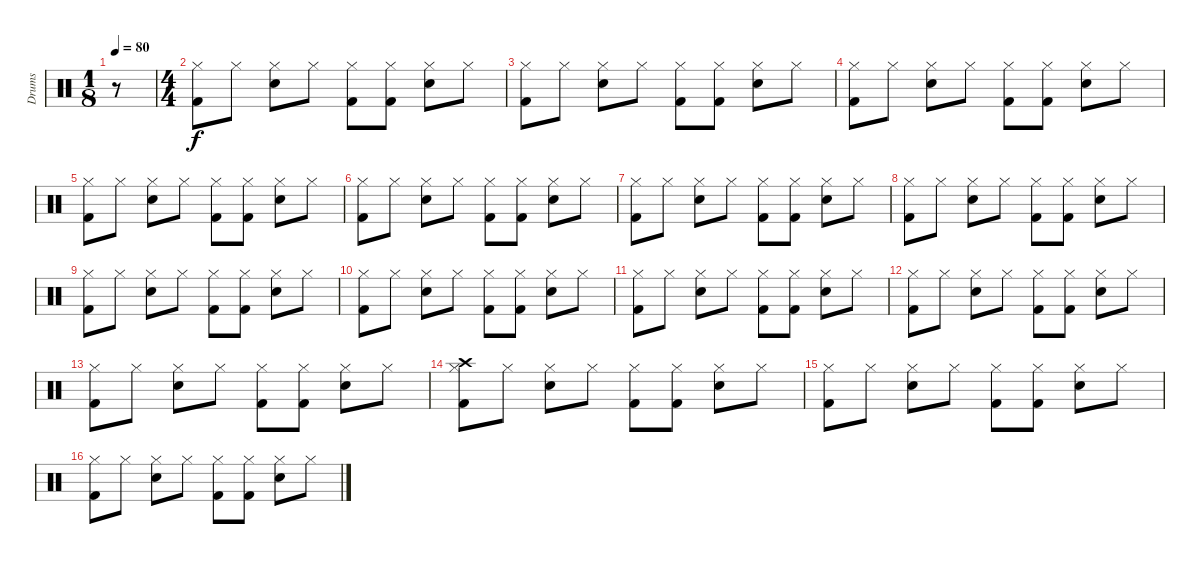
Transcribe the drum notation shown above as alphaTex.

\track ("Drums" "Drums") {instrument percussion}
\staff {score}
\articulation defaults
\ts (1 8)
\tempo 80
\clef neutral
\ks c
r.8{dy f} |
\ts (4 4)
("Hi-Hat (closed)" "Kick (hit) 2").8 "Hi-Hat (closed)".8 ("Hi-Hat (closed)" "Electric Snare (hit)").8 "Hi-Hat (closed)".8 ("Hi-Hat (closed)" "Kick (hit) 2").8 ("Hi-Hat (closed)" "Kick (hit) 2").8 ("Hi-Hat (closed)" "Electric Snare (hit)").8 "Hi-Hat (closed)".8 |
("Hi-Hat (closed)" "Kick (hit) 2").8 "Hi-Hat (closed)".8 ("Hi-Hat (closed)" "Electric Snare (hit)").8 "Hi-Hat (closed)".8 ("Hi-Hat (closed)" "Kick (hit) 2").8 ("Hi-Hat (closed)" "Kick (hit) 2").8 ("Hi-Hat (closed)" "Electric Snare (hit)").8 "Hi-Hat (closed)".8 |
("Hi-Hat (closed)" "Kick (hit) 2").8 "Hi-Hat (closed)".8 ("Hi-Hat (closed)" "Electric Snare (hit)").8 "Hi-Hat (closed)".8 ("Hi-Hat (closed)" "Kick (hit) 2").8 ("Hi-Hat (closed)" "Kick (hit) 2").8 ("Hi-Hat (closed)" "Electric Snare (hit)").8 "Hi-Hat (closed)".8 |
("Hi-Hat (closed)" "Kick (hit) 2").8 "Hi-Hat (closed)".8 ("Hi-Hat (closed)" "Electric Snare (hit)").8 "Hi-Hat (closed)".8 ("Hi-Hat (closed)" "Kick (hit) 2").8 ("Hi-Hat (closed)" "Kick (hit) 2").8 ("Hi-Hat (closed)" "Electric Snare (hit)").8 "Hi-Hat (closed)".8 |
("Hi-Hat (closed)" "Kick (hit) 2").8 "Hi-Hat (closed)".8 ("Hi-Hat (closed)" "Electric Snare (hit)").8 "Hi-Hat (closed)".8 ("Hi-Hat (closed)" "Kick (hit) 2").8 ("Hi-Hat (closed)" "Kick (hit) 2").8 ("Hi-Hat (closed)" "Electric Snare (hit)").8 "Hi-Hat (closed)".8 |
("Hi-Hat (closed)" "Kick (hit) 2").8 "Hi-Hat (closed)".8 ("Hi-Hat (closed)" "Electric Snare (hit)").8 "Hi-Hat (closed)".8 ("Hi-Hat (closed)" "Kick (hit) 2").8 ("Hi-Hat (closed)" "Kick (hit) 2").8 ("Hi-Hat (closed)" "Electric Snare (hit)").8 "Hi-Hat (closed)".8 |
("Hi-Hat (closed)" "Kick (hit) 2").8 "Hi-Hat (closed)".8 ("Hi-Hat (closed)" "Electric Snare (hit)").8 "Hi-Hat (closed)".8 ("Hi-Hat (closed)" "Kick (hit) 2").8 ("Hi-Hat (closed)" "Kick (hit) 2").8 ("Hi-Hat (closed)" "Electric Snare (hit)").8 "Hi-Hat (closed)".8 |
("Hi-Hat (closed)" "Kick (hit) 2").8 "Hi-Hat (closed)".8 ("Hi-Hat (closed)" "Electric Snare (hit)").8 "Hi-Hat (closed)".8 ("Hi-Hat (closed)" "Kick (hit) 2").8 ("Hi-Hat (closed)" "Kick (hit) 2").8 ("Hi-Hat (closed)" "Electric Snare (hit)").8 "Hi-Hat (closed)".8 |
("Hi-Hat (closed)" "Kick (hit) 2").8 "Hi-Hat (closed)".8 ("Hi-Hat (closed)" "Electric Snare (hit)").8 "Hi-Hat (closed)".8 ("Hi-Hat (closed)" "Kick (hit) 2").8 ("Hi-Hat (closed)" "Kick (hit) 2").8 ("Hi-Hat (closed)" "Electric Snare (hit)").8 "Hi-Hat (closed)".8 |
("Hi-Hat (closed)" "Kick (hit) 2").8 "Hi-Hat (closed)".8 ("Hi-Hat (closed)" "Electric Snare (hit)").8 "Hi-Hat (closed)".8 ("Hi-Hat (closed)" "Kick (hit) 2").8 ("Hi-Hat (closed)" "Kick (hit) 2").8 ("Hi-Hat (closed)" "Electric Snare (hit)").8 "Hi-Hat (closed)".8 |
("Hi-Hat (closed)" "Kick (hit) 2").8 "Hi-Hat (closed)".8 ("Hi-Hat (closed)" "Electric Snare (hit)").8 "Hi-Hat (closed)".8 ("Hi-Hat (closed)" "Kick (hit) 2").8 ("Hi-Hat (closed)" "Kick (hit) 2").8 ("Hi-Hat (closed)" "Electric Snare (hit)").8 "Hi-Hat (closed)".8 |
("Hi-Hat (closed)" "Kick (hit) 2").8 "Hi-Hat (closed)".8 ("Hi-Hat (closed)" "Electric Snare (hit)").8 "Hi-Hat (closed)".8 ("Hi-Hat (closed)" "Kick (hit) 2").8 ("Hi-Hat (closed)" "Kick (hit) 2").8 ("Hi-Hat (closed)" "Electric Snare (hit)").8 "Hi-Hat (closed)".8 |
("Crash high (hit)" "Hi-Hat (closed)" "Kick (hit) 2").8 "Hi-Hat (closed)".8 ("Hi-Hat (closed)" "Electric Snare (hit)").8 "Hi-Hat (closed)".8 ("Hi-Hat (closed)" "Kick (hit) 2").8 ("Hi-Hat (closed)" "Kick (hit) 2").8 ("Hi-Hat (closed)" "Electric Snare (hit)").8 "Hi-Hat (closed)".8 |
("Hi-Hat (closed)" "Kick (hit) 2").8 "Hi-Hat (closed)".8 ("Hi-Hat (closed)" "Electric Snare (hit)").8 "Hi-Hat (closed)".8 ("Hi-Hat (closed)" "Kick (hit) 2").8 ("Hi-Hat (closed)" "Kick (hit) 2").8 ("Hi-Hat (closed)" "Electric Snare (hit)").8 "Hi-Hat (closed)".8 |
("Hi-Hat (closed)" "Kick (hit) 2").8 "Hi-Hat (closed)".8 ("Hi-Hat (closed)" "Electric Snare (hit)").8 "Hi-Hat (closed)".8 ("Hi-Hat (closed)" "Kick (hit) 2").8 ("Hi-Hat (closed)" "Kick (hit) 2").8 ("Hi-Hat (closed)" "Electric Snare (hit)").8 "Hi-Hat (closed)".8
